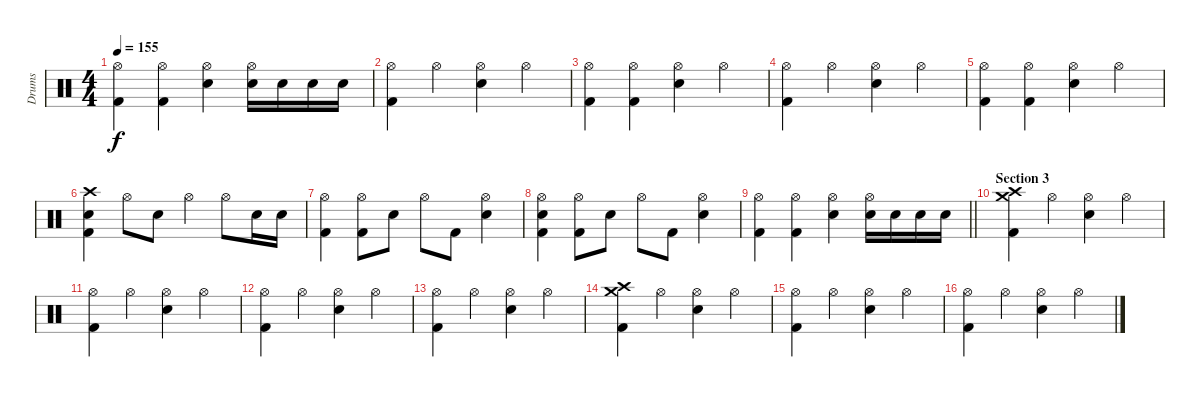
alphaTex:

\track ("Drums" "Drums") {instrument percussion}
\staff {score}
\articulation defaults
\ts (4 4)
\tempo 155
\clef neutral
\ks c
("Hi-Hat (open)" "Kick (hit) 2").4{dy f} ("Hi-Hat (open)" "Kick (hit) 2").4 ("Hi-Hat (open)" "Snare (hit) 2").4 ("Hi-Hat (open)" "Snare (hit) 2").16 "Snare (hit) 2".16 "Snare (hit) 2".16 "Snare (hit) 2".16 |
("Hi-Hat (open)" "Kick (hit) 2").4 "Hi-Hat (open)".4 ("Hi-Hat (open)" "Snare (hit) 2").4 "Hi-Hat (open)".4 |
("Hi-Hat (open)" "Kick (hit) 2").4 ("Hi-Hat (open)" "Kick (hit) 2").4 ("Hi-Hat (open)" "Snare (hit) 2").4 "Hi-Hat (open)".4 |
("Hi-Hat (open)" "Kick (hit) 2").4 "Hi-Hat (open)".4 ("Hi-Hat (open)" "Snare (hit) 2").4 "Hi-Hat (open)".4 |
("Hi-Hat (open)" "Kick (hit) 2").4 ("Hi-Hat (open)" "Kick (hit) 2").4 ("Hi-Hat (open)" "Snare (hit) 2").4 "Hi-Hat (open)".4 |
("Crash high (hit)" "Snare (hit) 2" "Kick (hit) 2").4 "Hi-Hat (open)".8 "Snare (hit) 2".8 "Hi-Hat (open)".4 "Hi-Hat (open)".8 "Snare (hit) 2".16 "Snare (hit) 2".16 |
("Hi-Hat (open)" "Kick (hit) 2").4 ("Hi-Hat (open)" "Kick (hit) 2").8 "Snare (hit) 2".8 "Hi-Hat (open)".8 "Kick (hit) 2".8 ("Hi-Hat (open)" "Snare (hit) 2").4 |
("Hi-Hat (open)" "Snare (hit) 2" "Kick (hit) 2").4 ("Hi-Hat (open)" "Kick (hit) 2").8 "Snare (hit) 2".8 "Hi-Hat (open)".8 "Kick (hit) 2".8 ("Hi-Hat (open)" "Snare (hit) 2").4 |
\barLineRight lightlight
("Hi-Hat (open)" "Kick (hit) 2").4 ("Hi-Hat (open)" "Kick (hit) 2").4 ("Hi-Hat (open)" "Snare (hit) 2").4 ("Hi-Hat (open)" "Snare (hit) 2").16 "Snare (hit) 2".16 "Snare (hit) 2".16 "Snare (hit) 2".16 |
\section ("" "Section 3")
("Crash high (hit)" "Crash medium (hit)" "Kick (hit) 2").4 "Hi-Hat (open)".4 ("Hi-Hat (open)" "Snare (hit) 2").4 "Hi-Hat (open)".4 |
("Hi-Hat (open)" "Kick (hit) 2").4 "Hi-Hat (open)".4 ("Hi-Hat (open)" "Snare (hit) 2").4 "Hi-Hat (open)".4 |
("Hi-Hat (open)" "Kick (hit) 2").4 "Hi-Hat (open)".4 ("Hi-Hat (open)" "Snare (hit) 2").4 "Hi-Hat (open)".4 |
("Hi-Hat (open)" "Kick (hit) 2").4 "Hi-Hat (open)".4 ("Hi-Hat (open)" "Snare (hit) 2").4 "Hi-Hat (open)".4 |
("Crash high (hit)" "Crash medium (hit)" "Kick (hit) 2").4 "Hi-Hat (open)".4 ("Hi-Hat (open)" "Snare (hit) 2").4 "Hi-Hat (open)".4 |
("Hi-Hat (open)" "Kick (hit) 2").4 "Hi-Hat (open)".4 ("Hi-Hat (open)" "Snare (hit) 2").4 "Hi-Hat (open)".4 |
("Hi-Hat (open)" "Kick (hit) 2").4 "Hi-Hat (open)".4 ("Hi-Hat (open)" "Snare (hit) 2").4 "Hi-Hat (open)".4
